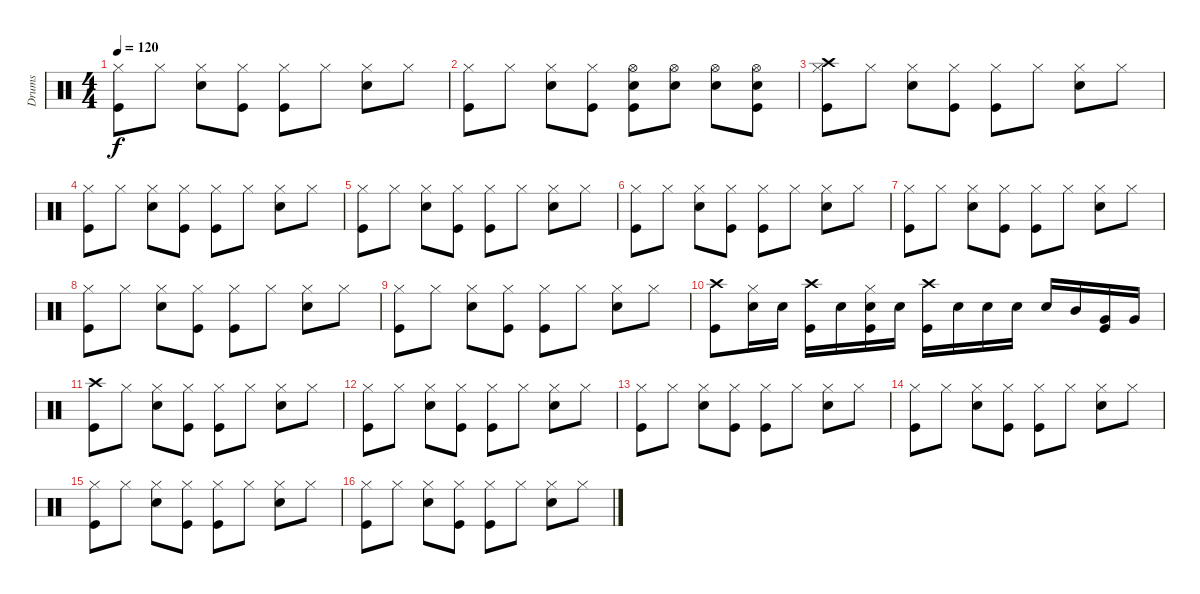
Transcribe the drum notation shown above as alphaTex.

\track ("Drums" "Drums") {instrument percussion}
\staff {score}
\articulation defaults
\ts (4 4)
\tempo 120
\clef neutral
\ks c
("Kick (hit)" "Hi-Hat (closed)").8{dy f} "Hi-Hat (closed)".8 ("Electric Snare (hit)" "Hi-Hat (closed)").8 ("Kick (hit)" "Hi-Hat (closed)").8 ("Kick (hit)" "Hi-Hat (closed)").8 "Hi-Hat (closed)".8 ("Electric Snare (hit)" "Hi-Hat (closed)").8 "Hi-Hat (closed)".8 |
("Kick (hit)" "Hi-Hat (closed)").8 "Hi-Hat (closed)".8 ("Electric Snare (hit)" "Hi-Hat (closed)").8 ("Kick (hit)" "Hi-Hat (closed)").8 ("Kick (hit)" "Electric Snare (hit)" "Hi-Hat (open)").8 ("Electric Snare (hit)" "Hi-Hat (open)").8 ("Electric Snare (hit)" "Hi-Hat (open)").8 ("Kick (hit)" "Electric Snare (hit)" "Hi-Hat (open)").8 |
("Kick (hit)" "Hi-Hat (closed)" "Crash high (hit)").8 "Hi-Hat (closed)".8 ("Electric Snare (hit)" "Hi-Hat (closed)").8 ("Kick (hit)" "Hi-Hat (closed)").8 ("Kick (hit)" "Hi-Hat (closed)").8 "Hi-Hat (closed)".8 ("Electric Snare (hit)" "Hi-Hat (closed)").8 "Hi-Hat (closed)".8 |
("Kick (hit)" "Hi-Hat (closed)").8 "Hi-Hat (closed)".8 ("Electric Snare (hit)" "Hi-Hat (closed)").8 ("Kick (hit)" "Hi-Hat (closed)").8 ("Kick (hit)" "Hi-Hat (closed)").8 "Hi-Hat (closed)".8 ("Electric Snare (hit)" "Hi-Hat (closed)").8 "Hi-Hat (closed)".8 |
("Kick (hit)" "Hi-Hat (closed)").8 "Hi-Hat (closed)".8 ("Electric Snare (hit)" "Hi-Hat (closed)").8 ("Kick (hit)" "Hi-Hat (closed)").8 ("Kick (hit)" "Hi-Hat (closed)").8 "Hi-Hat (closed)".8 ("Electric Snare (hit)" "Hi-Hat (closed)").8 "Hi-Hat (closed)".8 |
("Kick (hit)" "Hi-Hat (closed)").8 "Hi-Hat (closed)".8 ("Electric Snare (hit)" "Hi-Hat (closed)").8 ("Kick (hit)" "Hi-Hat (closed)").8 ("Kick (hit)" "Hi-Hat (closed)").8 "Hi-Hat (closed)".8 ("Electric Snare (hit)" "Hi-Hat (closed)").8 "Hi-Hat (closed)".8 |
("Kick (hit)" "Hi-Hat (closed)").8 "Hi-Hat (closed)".8 ("Electric Snare (hit)" "Hi-Hat (closed)").8 ("Kick (hit)" "Hi-Hat (closed)").8 ("Kick (hit)" "Hi-Hat (closed)").8 "Hi-Hat (closed)".8 ("Electric Snare (hit)" "Hi-Hat (closed)").8 "Hi-Hat (closed)".8 |
("Kick (hit)" "Hi-Hat (closed)").8 "Hi-Hat (closed)".8 ("Electric Snare (hit)" "Hi-Hat (closed)").8 ("Kick (hit)" "Hi-Hat (closed)").8 ("Kick (hit)" "Hi-Hat (closed)").8 "Hi-Hat (closed)".8 ("Electric Snare (hit)" "Hi-Hat (closed)").8 "Hi-Hat (closed)".8 |
("Kick (hit)" "Hi-Hat (closed)").8 "Hi-Hat (closed)".8 ("Electric Snare (hit)" "Hi-Hat (closed)").8 ("Kick (hit)" "Hi-Hat (closed)").8 ("Kick (hit)" "Hi-Hat (closed)").8 "Hi-Hat (closed)".8 ("Electric Snare (hit)" "Hi-Hat (closed)").8 "Hi-Hat (closed)".8 |
("Kick (hit)" "Crash high (hit)").8 ("Electric Snare (hit)" "Hi-Hat (closed)").16 "Electric Snare (hit)".16 ("Kick (hit)" "Crash high (hit)").16 "Electric Snare (hit)".16 ("Kick (hit)" "Electric Snare (hit)" "Hi-Hat (closed)").16 "Electric Snare (hit)".16 ("Kick (hit)" "Crash high (hit)").16 "Electric Snare (hit)".16 "Electric Snare (hit)".16 "Electric Snare (hit)".16 "Electric Snare (hit)".16 "Mid Tom (hit)".16 ("Kick (hit)" "Very Low Tom (hit)").16 "Very Low Tom (hit)".16 |
("Kick (hit)" "Crash high (hit)").8 "Hi-Hat (closed)".8 ("Electric Snare (hit)" "Hi-Hat (closed)").8 ("Kick (hit)" "Hi-Hat (closed)").8 ("Kick (hit)" "Hi-Hat (closed)").8 "Hi-Hat (closed)".8 ("Electric Snare (hit)" "Hi-Hat (closed)").8 "Hi-Hat (closed)".8 |
("Kick (hit)" "Hi-Hat (closed)").8 "Hi-Hat (closed)".8 ("Electric Snare (hit)" "Hi-Hat (closed)").8 ("Kick (hit)" "Hi-Hat (closed)").8 ("Kick (hit)" "Hi-Hat (closed)").8 "Hi-Hat (closed)".8 ("Electric Snare (hit)" "Hi-Hat (closed)").8 "Hi-Hat (closed)".8 |
("Kick (hit)" "Hi-Hat (closed)").8 "Hi-Hat (closed)".8 ("Electric Snare (hit)" "Hi-Hat (closed)").8 ("Kick (hit)" "Hi-Hat (closed)").8 ("Kick (hit)" "Hi-Hat (closed)").8 "Hi-Hat (closed)".8 ("Electric Snare (hit)" "Hi-Hat (closed)").8 "Hi-Hat (closed)".8 |
("Kick (hit)" "Hi-Hat (closed)").8 "Hi-Hat (closed)".8 ("Electric Snare (hit)" "Hi-Hat (closed)").8 ("Kick (hit)" "Hi-Hat (closed)").8 ("Kick (hit)" "Hi-Hat (closed)").8 "Hi-Hat (closed)".8 ("Electric Snare (hit)" "Hi-Hat (closed)").8 "Hi-Hat (closed)".8 |
("Kick (hit)" "Hi-Hat (closed)").8 "Hi-Hat (closed)".8 ("Electric Snare (hit)" "Hi-Hat (closed)").8 ("Kick (hit)" "Hi-Hat (closed)").8 ("Kick (hit)" "Hi-Hat (closed)").8 "Hi-Hat (closed)".8 ("Electric Snare (hit)" "Hi-Hat (closed)").8 "Hi-Hat (closed)".8 |
("Kick (hit)" "Hi-Hat (closed)").8 "Hi-Hat (closed)".8 ("Electric Snare (hit)" "Hi-Hat (closed)").8 ("Kick (hit)" "Hi-Hat (closed)").8 ("Kick (hit)" "Hi-Hat (closed)").8 "Hi-Hat (closed)".8 ("Electric Snare (hit)" "Hi-Hat (closed)").8 "Hi-Hat (closed)".8
